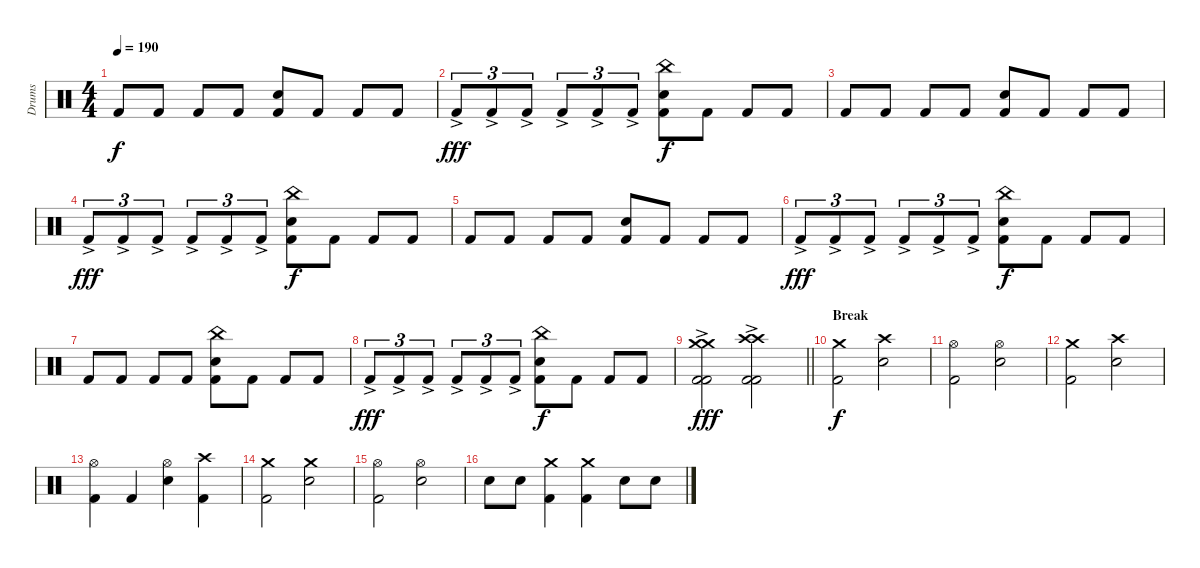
\track ("Drums" "Drums") {instrument percussion}
\staff {score}
\articulation defaults
\ts (4 4)
\tempo 190
\clef neutral
\ks c "Kick (hit) 2".8{dy f} "Kick (hit) 2".8 "Kick (hit) 2".8 "Kick (hit) 2".8
("Snare (hit) 2" "Kick (hit) 2").8 "Kick (hit) 2".8 "Kick (hit) 2".8 "Kick (hit) 2".8 |
"Kick (hit) 2"{ac}.8{tu (3 2) dy fff} "Kick (hit) 2"{ac}.8{tu (3 2)} "Kick (hit) 2"{ac}.8{tu (3 2)} "Kick (hit) 2"{ac}.8{tu (3 2)} "Kick (hit) 2"{ac}.8{tu (3 2)} "Kick (hit) 2"{ac}.8{tu (3 2)} ("China (hit)" "Snare (hit) 2" "Kick (hit) 2").8{dy f} "Kick (hit) 2".8 "Kick (hit) 2".8 "Kick (hit) 2".8 |
"Kick (hit) 2".8 "Kick (hit) 2".8 "Kick (hit) 2".8 "Kick (hit) 2".8 ("Snare (hit) 2" "Kick (hit) 2").8 "Kick (hit) 2".8 "Kick (hit) 2".8 "Kick (hit) 2".8 |
"Kick (hit) 2"{ac}.8{tu (3 2) dy fff} "Kick (hit) 2"{ac}.8{tu (3 2)} "Kick (hit) 2"{ac}.8{tu (3 2)} "Kick (hit) 2"{ac}.8{tu (3 2)} "Kick (hit) 2"{ac}.8{tu (3 2)} "Kick (hit) 2"{ac}.8{tu (3 2)} ("China (hit)" "Snare (hit) 2" "Kick (hit) 2").8{dy f} "Kick (hit) 2".8 "Kick (hit) 2".8 "Kick (hit) 2".8 |
"Kick (hit) 2".8 "Kick (hit) 2".8 "Kick (hit) 2".8 "Kick (hit) 2".8 ("Snare (hit) 2" "Kick (hit) 2").8 "Kick (hit) 2".8 "Kick (hit) 2".8 "Kick (hit) 2".8 |
"Kick (hit) 2"{ac}.8{tu (3 2) dy fff} "Kick (hit) 2"{ac}.8{tu (3 2)} "Kick (hit) 2"{ac}.8{tu (3 2)} "Kick (hit) 2"{ac}.8{tu (3 2)} "Kick (hit) 2"{ac}.8{tu (3 2)} "Kick (hit) 2"{ac}.8{tu (3 2)} ("China (hit)" "Snare (hit) 2" "Kick (hit) 2").8{dy f} "Kick (hit) 2".8 "Kick (hit) 2".8 "Kick (hit) 2".8 |
"Kick (hit) 2".8 "Kick (hit) 2".8 "Kick (hit) 2".8 "Kick (hit) 2".8 ("China (hit)" "Snare (hit) 2" "Kick (hit) 2").8 "Kick (hit) 2".8 "Kick (hit) 2".8 "Kick (hit) 2".8 |
"Kick (hit) 2"{ac}.8{tu (3 2) dy fff} "Kick (hit) 2"{ac}.8{tu (3 2)} "Kick (hit) 2"{ac}.8{tu (3 2)} "Kick (hit) 2"{ac}.8{tu (3 2)} "Kick (hit) 2"{ac}.8{tu (3 2)} "Kick (hit) 2"{ac}.8{tu (3 2)} ("China (hit)" "Snare (hit) 2" "Kick (hit) 2").8{dy f} "Kick (hit) 2".8 "Kick (hit) 2".8 "Kick (hit) 2".8 |
\barLineRight lightlight
("Crash medium (hit)"{ac} "Crash medium (hit)"{ac} "Kick (hit) 2"{ac} "Kick (hit) 2"{ac}).2{dy fff} ("Crash high (hit)"{ac} "Crash high (hit)"{ac} "Kick (hit) 2"{ac} "Kick (hit) 2"{ac}).2 |
\section ("" "Break")
("Crash medium (hit)" "Kick (hit) 2").2{dy f} ("Crash high (hit)" "Snare (hit) 2").2 |
("Hi-Hat (open)" "Kick (hit) 2").2 ("Hi-Hat (open)" "Snare (hit) 2").2 |
("Crash medium (hit)" "Kick (hit) 2").2 ("Crash high (hit)" "Snare (hit) 2").2 |
("Hi-Hat (open)" "Kick (hit) 2").4 "Kick (hit) 2".4 ("Hi-Hat (open)" "Snare (hit) 2").4 ("Crash high (hit)" "Kick (hit) 2").4 |
("Crash medium (hit)" "Kick (hit) 2").2 ("Crash medium (hit)" "Snare (hit) 2").2 |
("Hi-Hat (open)" "Kick (hit) 2").2 ("Hi-Hat (open)" "Snare (hit) 2").2 |
"Snare (hit) 2".8 "Snare (hit) 2".8 ("Crash medium (hit)" "Kick (hit) 2").4 ("Crash medium (hit)" "Kick (hit) 2").4 "Snare (hit) 2".8 "Snare (hit) 2".8
